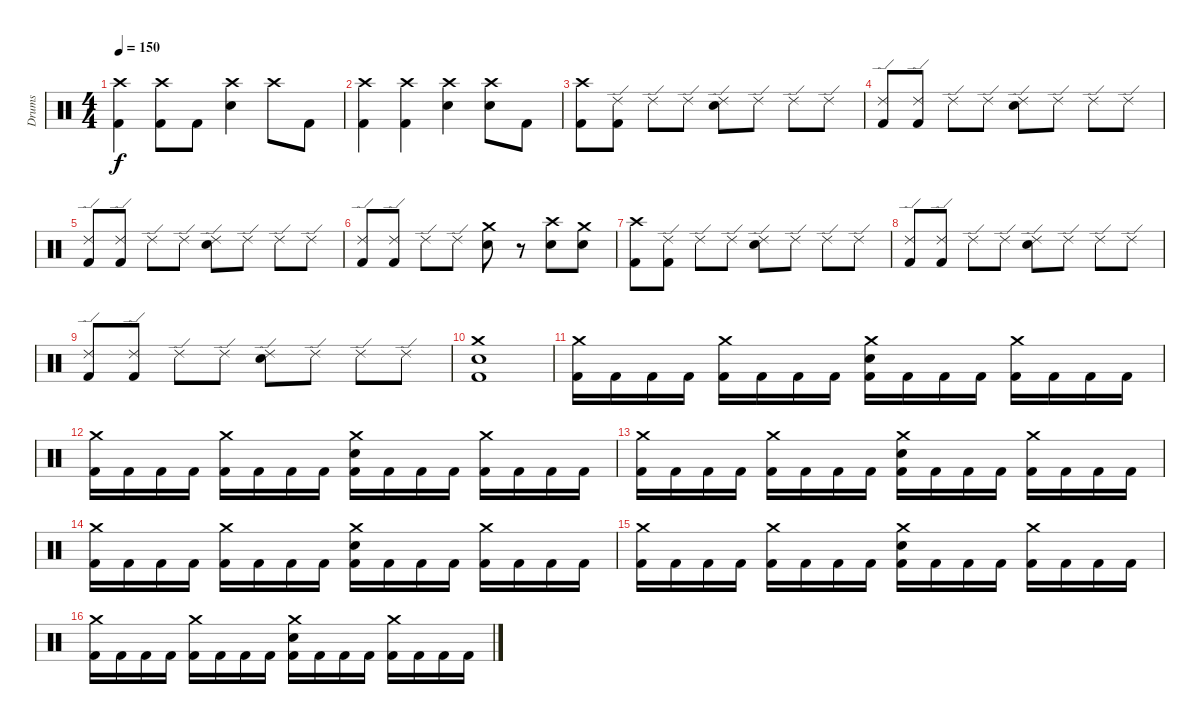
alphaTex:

\track ("Drums" "Drums") {instrument percussion}
\staff {score}
\articulation defaults
\ts (4 4)
\tempo 150
\clef neutral
\ks c
("Crash high (hit)" "Kick (hit) 2").4{dy f} ("Crash high (hit)" "Kick (hit) 2").8 "Kick (hit) 2".8 ("Crash high (hit)" "Snare (hit) 2").4 "Crash high (hit)".8 "Kick (hit) 2".8 |
("Crash high (hit)" "Kick (hit) 2").4 ("Crash high (hit)" "Kick (hit) 2").4 ("Crash high (hit)" "Snare (hit) 2").4 ("Crash high (hit)" "Snare (hit) 2").8 "Kick (hit) 2".8 |
("Crash high (hit)" "Kick (hit) 2").8 ("Ride (edge) 2" "Kick (hit) 2").8 "Ride (edge) 2".8 "Ride (edge) 2".8 ("Ride (edge) 2" "Snare (hit) 2").8 "Ride (edge) 2".8 "Ride (edge) 2".8 "Ride (edge) 2".8 |
("Ride (edge) 2" "Kick (hit) 2").8 ("Ride (edge) 2" "Kick (hit) 2").8 "Ride (edge) 2".8 "Ride (edge) 2".8 ("Ride (edge) 2" "Snare (hit) 2").8 "Ride (edge) 2".8 "Ride (edge) 2".8 "Ride (edge) 2".8 |
("Ride (edge) 2" "Kick (hit) 2").8 ("Ride (edge) 2" "Kick (hit) 2").8 "Ride (edge) 2".8 "Ride (edge) 2".8 ("Ride (edge) 2" "Snare (hit) 2").8 "Ride (edge) 2".8 "Ride (edge) 2".8 "Ride (edge) 2".8 |
("Ride (edge) 2" "Kick (hit) 2").8 ("Ride (edge) 2" "Kick (hit) 2").8 "Ride (edge) 2".8 "Ride (edge) 2".8 ("Crash medium (hit)" "Snare (hit) 2").8 r.8 ("Crash high (hit)" "Snare (hit) 2").8 ("Crash medium (hit)" "Snare (hit) 2").8 |
("Crash high (hit)" "Kick (hit) 2").8 ("Ride (edge) 2" "Kick (hit) 2").8 "Ride (edge) 2".8 "Ride (edge) 2".8 ("Ride (edge) 2" "Snare (hit) 2").8 "Ride (edge) 2".8 "Ride (edge) 2".8 "Ride (edge) 2".8 |
("Ride (edge) 2" "Kick (hit) 2").8 ("Ride (edge) 2" "Kick (hit) 2").8 "Ride (edge) 2".8 "Ride (edge) 2".8 ("Ride (edge) 2" "Snare (hit) 2").8 "Ride (edge) 2".8 "Ride (edge) 2".8 "Ride (edge) 2".8 |
("Ride (edge) 2" "Kick (hit) 2").8 ("Ride (edge) 2" "Kick (hit) 2").8 "Ride (edge) 2".8 "Ride (edge) 2".8 ("Ride (edge) 2" "Snare (hit) 2").8 "Ride (edge) 2".8 "Ride (edge) 2".8 "Ride (edge) 2".8 |
("Crash medium (hit)" "Snare (hit) 2" "Kick (hit) 2").1 |
("Crash medium (hit)" "Kick (hit) 2").16 "Kick (hit) 2".16 "Kick (hit) 2".16 "Kick (hit) 2".16 ("Crash medium (hit)" "Kick (hit) 2").16 "Kick (hit) 2".16 "Kick (hit) 2".16 "Kick (hit) 2".16 ("Crash medium (hit)" "Snare (hit) 2" "Kick (hit) 2").16 "Kick (hit) 2".16 "Kick (hit) 2".16 "Kick (hit) 2".16 ("Crash medium (hit)" "Kick (hit) 2").16 "Kick (hit) 2".16 "Kick (hit) 2".16 "Kick (hit) 2".16 |
("Crash medium (hit)" "Kick (hit) 2").16 "Kick (hit) 2".16 "Kick (hit) 2".16 "Kick (hit) 2".16 ("Crash medium (hit)" "Kick (hit) 2").16 "Kick (hit) 2".16 "Kick (hit) 2".16 "Kick (hit) 2".16 ("Crash medium (hit)" "Snare (hit) 2" "Kick (hit) 2").16 "Kick (hit) 2".16 "Kick (hit) 2".16 "Kick (hit) 2".16 ("Crash medium (hit)" "Kick (hit) 2").16 "Kick (hit) 2".16 "Kick (hit) 2".16 "Kick (hit) 2".16 |
("Crash medium (hit)" "Kick (hit) 2").16 "Kick (hit) 2".16 "Kick (hit) 2".16 "Kick (hit) 2".16 ("Crash medium (hit)" "Kick (hit) 2").16 "Kick (hit) 2".16 "Kick (hit) 2".16 "Kick (hit) 2".16 ("Crash medium (hit)" "Snare (hit) 2" "Kick (hit) 2").16 "Kick (hit) 2".16 "Kick (hit) 2".16 "Kick (hit) 2".16 ("Crash medium (hit)" "Kick (hit) 2").16 "Kick (hit) 2".16 "Kick (hit) 2".16 "Kick (hit) 2".16 |
("Crash medium (hit)" "Kick (hit) 2").16 "Kick (hit) 2".16 "Kick (hit) 2".16 "Kick (hit) 2".16 ("Crash medium (hit)" "Kick (hit) 2").16 "Kick (hit) 2".16 "Kick (hit) 2".16 "Kick (hit) 2".16 ("Crash medium (hit)" "Snare (hit) 2" "Kick (hit) 2").16 "Kick (hit) 2".16 "Kick (hit) 2".16 "Kick (hit) 2".16 ("Crash medium (hit)" "Kick (hit) 2").16 "Kick (hit) 2".16 "Kick (hit) 2".16 "Kick (hit) 2".16 |
("Crash medium (hit)" "Kick (hit) 2").16 "Kick (hit) 2".16 "Kick (hit) 2".16 "Kick (hit) 2".16 ("Crash medium (hit)" "Kick (hit) 2").16 "Kick (hit) 2".16 "Kick (hit) 2".16 "Kick (hit) 2".16 ("Crash medium (hit)" "Snare (hit) 2" "Kick (hit) 2").16 "Kick (hit) 2".16 "Kick (hit) 2".16 "Kick (hit) 2".16 ("Crash medium (hit)" "Kick (hit) 2").16 "Kick (hit) 2".16 "Kick (hit) 2".16 "Kick (hit) 2".16 |
("Crash medium (hit)" "Kick (hit) 2").16 "Kick (hit) 2".16 "Kick (hit) 2".16 "Kick (hit) 2".16 ("Crash medium (hit)" "Kick (hit) 2").16 "Kick (hit) 2".16 "Kick (hit) 2".16 "Kick (hit) 2".16 ("Crash medium (hit)" "Snare (hit) 2" "Kick (hit) 2").16 "Kick (hit) 2".16 "Kick (hit) 2".16 "Kick (hit) 2".16 ("Crash medium (hit)" "Kick (hit) 2").16 "Kick (hit) 2".16 "Kick (hit) 2".16 "Kick (hit) 2".16
